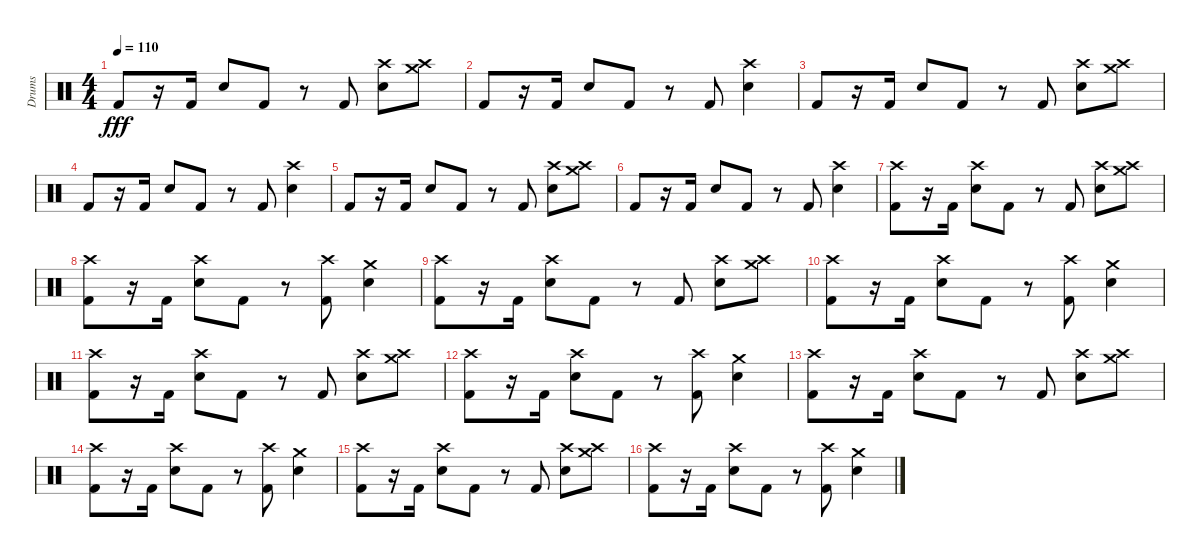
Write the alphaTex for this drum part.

\track ("Drums" "Drums") {instrument percussion}
\staff {score}
\articulation defaults
\ts (4 4)
\tempo 110
\clef neutral
\ks c "Kick (hit) 2".8{dy fff}
r.16 "Kick (hit) 2".16 "Electric Snare (hit)".8 "Kick (hit) 2".8 r.8 "Kick (hit) 2".8 ("Crash high (hit)" "Electric Snare (hit)").8 ("Crash high (hit)" "Crash medium (hit)").8 |
"Kick (hit) 2".8 r.16 "Kick (hit) 2".16 "Electric Snare (hit)".8 "Kick (hit) 2".8 r.8 "Kick (hit) 2".8 ("Crash high (hit)" "Electric Snare (hit)").4 |
"Kick (hit) 2".8 r.16 "Kick (hit) 2".16 "Electric Snare (hit)".8 "Kick (hit) 2".8 r.8 "Kick (hit) 2".8 ("Crash high (hit)" "Electric Snare (hit)").8 ("Crash high (hit)" "Crash medium (hit)").8 |
"Kick (hit) 2".8 r.16 "Kick (hit) 2".16 "Electric Snare (hit)".8 "Kick (hit) 2".8 r.8 "Kick (hit) 2".8 ("Crash high (hit)" "Electric Snare (hit)").4 |
"Kick (hit) 2".8 r.16 "Kick (hit) 2".16 "Electric Snare (hit)".8 "Kick (hit) 2".8 r.8 "Kick (hit) 2".8 ("Crash high (hit)" "Electric Snare (hit)").8 ("Crash high (hit)" "Crash medium (hit)").8 |
"Kick (hit) 2".8 r.16 "Kick (hit) 2".16 "Electric Snare (hit)".8 "Kick (hit) 2".8 r.8 "Kick (hit) 2".8 ("Crash high (hit)" "Electric Snare (hit)").4 |
("Crash high (hit)" "Kick (hit) 2").8 r.16 "Kick (hit) 2".16 ("Crash high (hit)" "Electric Snare (hit)").8 "Kick (hit) 2".8 r.8 "Kick (hit) 2".8 ("Crash high (hit)" "Electric Snare (hit)").8 ("Crash high (hit)" "Crash medium (hit)").8 |
("Crash high (hit)" "Kick (hit) 2").8 r.16 "Kick (hit) 2".16 ("Crash high (hit)" "Electric Snare (hit)").8 "Kick (hit) 2".8 r.8 ("Crash high (hit)" "Kick (hit) 2").8 ("Crash medium (hit)" "Electric Snare (hit)").4 |
("Crash high (hit)" "Kick (hit) 2").8 r.16 "Kick (hit) 2".16 ("Crash high (hit)" "Electric Snare (hit)").8 "Kick (hit) 2".8 r.8 "Kick (hit) 2".8 ("Crash high (hit)" "Electric Snare (hit)").8 ("Crash high (hit)" "Crash medium (hit)").8 |
("Crash high (hit)" "Kick (hit) 2").8 r.16 "Kick (hit) 2".16 ("Crash high (hit)" "Electric Snare (hit)").8 "Kick (hit) 2".8 r.8 ("Crash high (hit)" "Kick (hit) 2").8 ("Crash medium (hit)" "Electric Snare (hit)").4 |
("Crash high (hit)" "Kick (hit) 2").8 r.16 "Kick (hit) 2".16 ("Crash high (hit)" "Electric Snare (hit)").8 "Kick (hit) 2".8 r.8 "Kick (hit) 2".8 ("Crash high (hit)" "Electric Snare (hit)").8 ("Crash high (hit)" "Crash medium (hit)").8 |
("Crash high (hit)" "Kick (hit) 2").8 r.16 "Kick (hit) 2".16 ("Crash high (hit)" "Electric Snare (hit)").8 "Kick (hit) 2".8 r.8 ("Crash high (hit)" "Kick (hit) 2").8 ("Crash medium (hit)" "Electric Snare (hit)").4 |
("Crash high (hit)" "Kick (hit) 2").8 r.16 "Kick (hit) 2".16 ("Crash high (hit)" "Electric Snare (hit)").8 "Kick (hit) 2".8 r.8 "Kick (hit) 2".8 ("Crash high (hit)" "Electric Snare (hit)").8 ("Crash high (hit)" "Crash medium (hit)").8 |
("Crash high (hit)" "Kick (hit) 2").8 r.16 "Kick (hit) 2".16 ("Crash high (hit)" "Electric Snare (hit)").8 "Kick (hit) 2".8 r.8 ("Crash high (hit)" "Kick (hit) 2").8 ("Crash medium (hit)" "Electric Snare (hit)").4 |
("Crash high (hit)" "Kick (hit) 2").8 r.16 "Kick (hit) 2".16 ("Crash high (hit)" "Electric Snare (hit)").8 "Kick (hit) 2".8 r.8 "Kick (hit) 2".8 ("Crash high (hit)" "Electric Snare (hit)").8 ("Crash high (hit)" "Crash medium (hit)").8 |
("Crash high (hit)" "Kick (hit) 2").8 r.16 "Kick (hit) 2".16 ("Crash high (hit)" "Electric Snare (hit)").8 "Kick (hit) 2".8 r.8 ("Crash high (hit)" "Kick (hit) 2").8 ("Crash medium (hit)" "Electric Snare (hit)").4
